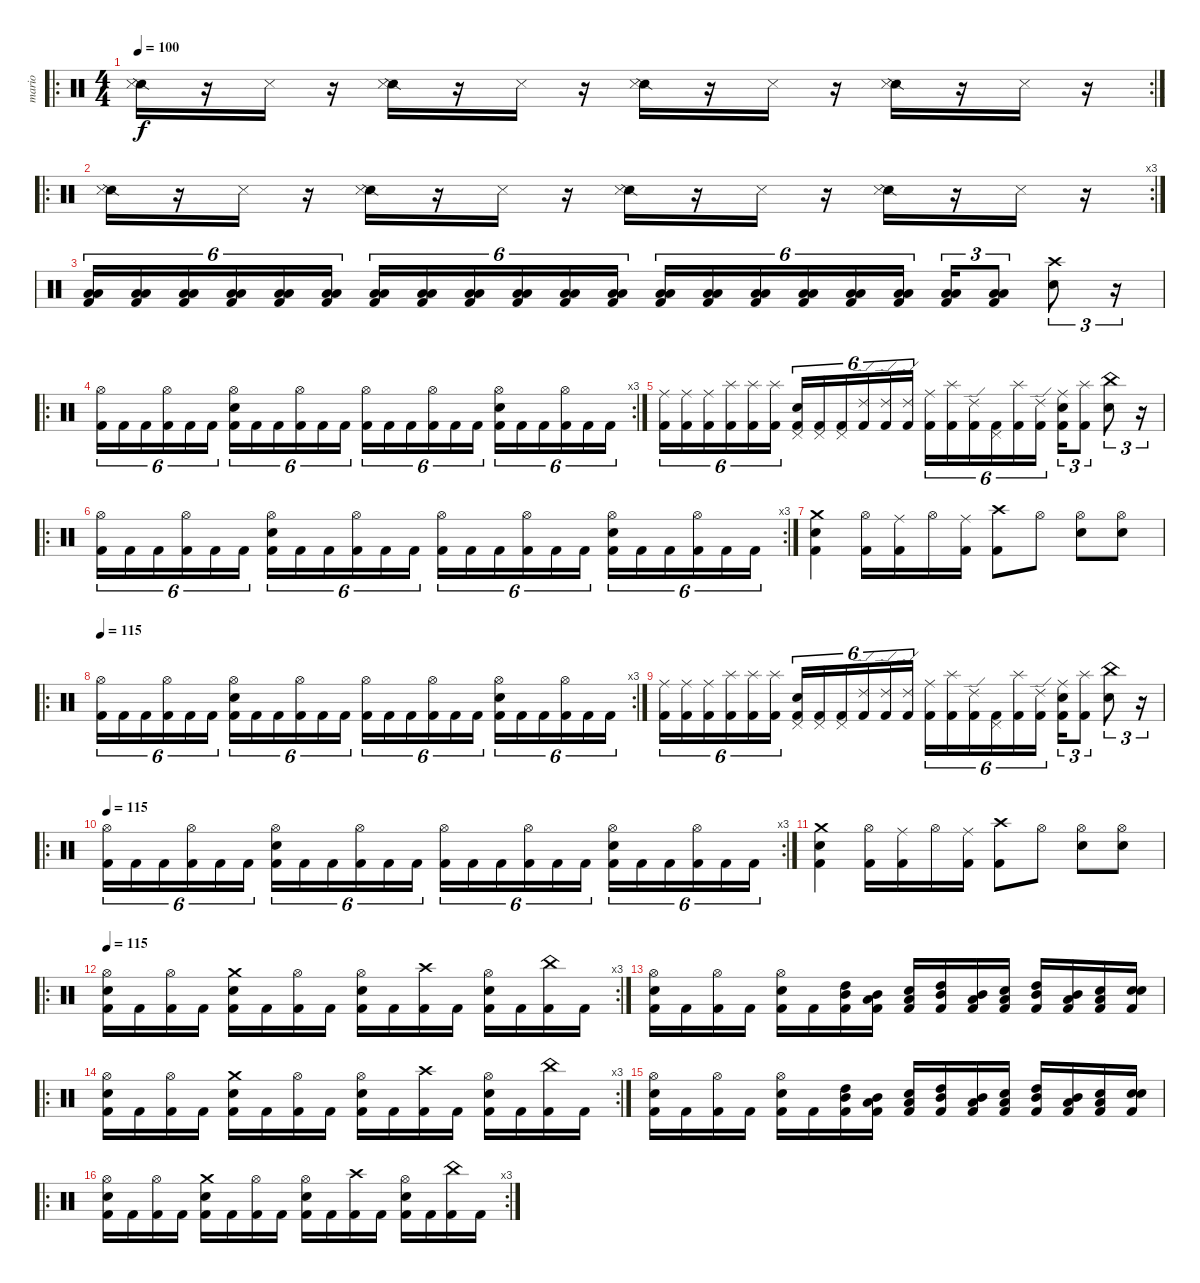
\track ("mario" "mario") {instrument percussion}
\staff {score}
\articulation defaults
\ro
\rc 2
\ts (4 4)
\tempo 100
\tempo 115
\tempo 100
\clef neutral
\ks c
("Snare (side stick) 2" "Metronome (hit)").16{dy f} r.16 "Metronome (hit)".16 r.16 ("Snare (side stick) 2" "Metronome (hit)").16 r.16 "Metronome (hit)".16 r.16 ("Snare (side stick) 2" "Metronome (hit)").16 r.16 "Metronome (hit)".16 r.16 ("Snare (side stick) 2" "Metronome (hit)").16 r.16 "Metronome (hit)".16 r.16 |
\ro
\rc 3
("Snare (side stick) 2" "Metronome (hit)").16 r.16 "Metronome (hit)".16 r.16 ("Snare (side stick) 2" "Metronome (hit)").16 r.16 "Metronome (hit)".16 r.16 ("Snare (side stick) 2" "Metronome (hit)").16 r.16 "Metronome (hit)".16 r.16 ("Snare (side stick) 2" "Metronome (hit)").16 r.16 "Metronome (hit)".16 r.16 |
("Low Tom (hit)" "Low Tom (hit)" "Kick (hit) 2").16{tu (6 4) volume 12} ("Low Tom (hit)" "Low Tom (hit)" "Kick (hit) 2").16{tu (6 4)} ("Low Tom (hit)" "Low Tom (hit)" "Kick (hit) 2").16{tu (6 4)} ("Low Tom (hit)" "Low Tom (hit)" "Kick (hit) 2").16{tu (6 4)} ("Low Tom (hit)" "Low Tom (hit)" "Kick (hit) 2").16{tu (6 4)} ("Low Tom (hit)" "Low Tom (hit)" "Kick (hit) 2").16{tu (6 4)} ("Low Tom (hit)" "Low Tom (hit)" "Kick (hit) 2").16{tu (6 4)} ("Low Tom (hit)" "Low Tom (hit)" "Kick (hit) 2").16{tu (6 4)} ("Low Tom (hit)" "Low Tom (hit)" "Kick (hit) 2").16{tu (6 4)} ("Low Tom (hit)" "Low Tom (hit)" "Kick (hit) 2").16{tu (6 4)} ("Low Tom (hit)" "Low Tom (hit)" "Kick (hit) 2").16{tu (6 4)} ("Low Tom (hit)" "Low Tom (hit)" "Kick (hit) 2").16{tu (6 4)} ("Low Tom (hit)" "Low Tom (hit)" "Kick (hit) 2").16{tu (6 4)} ("Low Tom (hit)" "Low Tom (hit)" "Kick (hit) 2").16{tu (6 4)} ("Low Tom (hit)" "Low Tom (hit)" "Kick (hit) 2").16{tu (6 4)} ("Low Tom (hit)" "Low Tom (hit)" "Kick (hit) 2").16{tu (6 4)} ("Low Tom (hit)" "Low Tom (hit)" "Kick (hit) 2").16{tu (6 4)} ("Low Tom (hit)" "Low Tom (hit)" "Kick (hit) 2").16{tu (6 4)} ("Low Tom (hit)" "Low Tom (hit)" "Kick (hit) 2").16{tu (3 2)} ("Low Tom (hit)" "Low Tom (hit)" "Kick (hit) 2").8{tu (3 2)} ("Crash high (hit)" "Electric Snare (hit)").8{tu (3 2)} r.16{tu (3 2)} |
\ro
\rc 3
("Hi-Hat (open)" "Kick (hit) 2").16{tu (6 4) volume 12} "Kick (hit) 2".16{tu (6 4)} "Kick (hit) 2".16{tu (6 4)} ("Hi-Hat (open)" "Kick (hit) 2").16{tu (6 4)} "Kick (hit) 2".16{tu (6 4)} "Kick (hit) 2".16{tu (6 4)} ("Hi-Hat (open)" "Electric Snare (hit)" "Kick (hit) 2").16{tu (6 4)} "Kick (hit) 2".16{tu (6 4)} "Kick (hit) 2".16{tu (6 4)} ("Hi-Hat (open)" "Kick (hit) 2").16{tu (6 4)} "Kick (hit) 2".16{tu (6 4)} "Kick (hit) 2".16{tu (6 4)} ("Hi-Hat (open)" "Kick (hit) 2").16{tu (6 4)} "Kick (hit) 2".16{tu (6 4)} "Kick (hit) 2".16{tu (6 4)} ("Hi-Hat (open)" "Kick (hit) 2").16{tu (6 4)} "Kick (hit) 2".16{tu (6 4)} "Kick (hit) 2".16{tu (6 4)} ("Hi-Hat (open)" "Electric Snare (hit)" "Kick (hit) 2").16{tu (6 4)} "Kick (hit) 2".16{tu (6 4)} "Kick (hit) 2".16{tu (6 4)} ("Hi-Hat (open)" "Kick (hit) 2").16{tu (6 4)} "Kick (hit) 2".16{tu (6 4)} "Kick (hit) 2".16{tu (6 4)} |
("Ride (middle)" "Kick (hit) 2").16{tu (6 4) volume 12} ("Ride (middle)" "Kick (hit) 2").16{tu (6 4)} ("Ride (middle)" "Kick (hit) 2").16{tu (6 4)} ("Splash (hit)" "Kick (hit) 2").16{tu (6 4)} ("Splash (hit)" "Kick (hit) 2").16{tu (6 4)} ("Splash (hit)" "Kick (hit) 2").16{tu (6 4)} ("Pedal Hi-Hat (hit)" "Electric Snare (hit)" "Kick (hit) 2").16{tu (6 4)} ("Pedal Hi-Hat (hit)" "Kick (hit) 2").16{tu (6 4)} ("Pedal Hi-Hat (hit)" "Kick (hit) 2").16{tu (6 4)} ("Ride (edge) 2" "Kick (hit) 2").16{tu (6 4)} ("Ride (edge) 2" "Kick (hit) 2").16{tu (6 4)} ("Ride (edge) 2" "Kick (hit) 2").16{tu (6 4)} ("Ride (middle)" "Kick (hit) 2").16{tu (6 4)} ("Splash (hit)" "Kick (hit) 2").16{tu (6 4)} ("Ride (edge) 2" "Kick (hit) 2").16{tu (6 4)} ("Pedal Hi-Hat (hit)" "Kick (hit) 2").16{tu (6 4)} ("Splash (hit)" "Kick (hit) 2").16{tu (6 4)} ("Ride (edge) 2" "Kick (hit) 2").16{tu (6 4)} ("Ride (middle)" "Electric Snare (hit)" "Kick (hit) 2").16{tu (3 2)} ("Splash (hit)" "Kick (hit) 2").8{tu (3 2)} ("China (hit)" "Electric Snare (hit)").8{tu (3 2)} r.16{tu (3 2)} |
\ro
\rc 3
("Hi-Hat (open)" "Kick (hit) 2").16{tu (6 4) volume 12} "Kick (hit) 2".16{tu (6 4)} "Kick (hit) 2".16{tu (6 4)} ("Hi-Hat (open)" "Kick (hit) 2").16{tu (6 4)} "Kick (hit) 2".16{tu (6 4)} "Kick (hit) 2".16{tu (6 4)} ("Hi-Hat (open)" "Electric Snare (hit)" "Kick (hit) 2").16{tu (6 4)} "Kick (hit) 2".16{tu (6 4)} "Kick (hit) 2".16{tu (6 4)} ("Hi-Hat (open)" "Kick (hit) 2").16{tu (6 4)} "Kick (hit) 2".16{tu (6 4)} "Kick (hit) 2".16{tu (6 4)} ("Hi-Hat (open)" "Kick (hit) 2").16{tu (6 4)} "Kick (hit) 2".16{tu (6 4)} "Kick (hit) 2".16{tu (6 4)} ("Hi-Hat (open)" "Kick (hit) 2").16{tu (6 4)} "Kick (hit) 2".16{tu (6 4)} "Kick (hit) 2".16{tu (6 4)} ("Hi-Hat (open)" "Electric Snare (hit)" "Kick (hit) 2").16{tu (6 4)} "Kick (hit) 2".16{tu (6 4)} "Kick (hit) 2".16{tu (6 4)} ("Hi-Hat (open)" "Kick (hit) 2").16{tu (6 4)} "Kick (hit) 2".16{tu (6 4)} "Kick (hit) 2".16{tu (6 4)} |
("Crash medium (hit)" "Electric Snare (hit)" "Kick (hit) 2").4 ("Hi-Hat (open)" "Kick (hit) 2").16 ("Ride (middle)" "Kick (hit) 2").16 "Hi-Hat (open)".16 ("Ride (middle)" "Kick (hit) 2").16 ("Crash high (hit)" "Kick (hit) 2").8 "Hi-Hat (open)".8 ("Hi-Hat (open)" "Electric Snare (hit)").8 ("Hi-Hat (open)" "Electric Snare (hit)").8 |
\ro
\rc 3
\tempo 115
("Hi-Hat (open)" "Kick (hit) 2").16{tu (6 4) volume 12} "Kick (hit) 2".16{tu (6 4)} "Kick (hit) 2".16{tu (6 4)} ("Hi-Hat (open)" "Kick (hit) 2").16{tu (6 4)} "Kick (hit) 2".16{tu (6 4)} "Kick (hit) 2".16{tu (6 4)} ("Hi-Hat (open)" "Electric Snare (hit)" "Kick (hit) 2").16{tu (6 4)} "Kick (hit) 2".16{tu (6 4)} "Kick (hit) 2".16{tu (6 4)} ("Hi-Hat (open)" "Kick (hit) 2").16{tu (6 4)} "Kick (hit) 2".16{tu (6 4)} "Kick (hit) 2".16{tu (6 4)} ("Hi-Hat (open)" "Kick (hit) 2").16{tu (6 4)} "Kick (hit) 2".16{tu (6 4)} "Kick (hit) 2".16{tu (6 4)} ("Hi-Hat (open)" "Kick (hit) 2").16{tu (6 4)} "Kick (hit) 2".16{tu (6 4)} "Kick (hit) 2".16{tu (6 4)} ("Hi-Hat (open)" "Electric Snare (hit)" "Kick (hit) 2").16{tu (6 4)} "Kick (hit) 2".16{tu (6 4)} "Kick (hit) 2".16{tu (6 4)} ("Hi-Hat (open)" "Kick (hit) 2").16{tu (6 4)} "Kick (hit) 2".16{tu (6 4)} "Kick (hit) 2".16{tu (6 4)} |
("Ride (middle)" "Kick (hit) 2").16{tu (6 4) volume 12} ("Ride (middle)" "Kick (hit) 2").16{tu (6 4)} ("Ride (middle)" "Kick (hit) 2").16{tu (6 4)} ("Splash (hit)" "Kick (hit) 2").16{tu (6 4)} ("Splash (hit)" "Kick (hit) 2").16{tu (6 4)} ("Splash (hit)" "Kick (hit) 2").16{tu (6 4)} ("Pedal Hi-Hat (hit)" "Electric Snare (hit)" "Kick (hit) 2").16{tu (6 4)} ("Pedal Hi-Hat (hit)" "Kick (hit) 2").16{tu (6 4)} ("Pedal Hi-Hat (hit)" "Kick (hit) 2").16{tu (6 4)} ("Ride (edge) 2" "Kick (hit) 2").16{tu (6 4)} ("Ride (edge) 2" "Kick (hit) 2").16{tu (6 4)} ("Ride (edge) 2" "Kick (hit) 2").16{tu (6 4)} ("Ride (middle)" "Kick (hit) 2").16{tu (6 4)} ("Splash (hit)" "Kick (hit) 2").16{tu (6 4)} ("Ride (edge) 2" "Kick (hit) 2").16{tu (6 4)} ("Pedal Hi-Hat (hit)" "Kick (hit) 2").16{tu (6 4)} ("Splash (hit)" "Kick (hit) 2").16{tu (6 4)} ("Ride (edge) 2" "Kick (hit) 2").16{tu (6 4)} ("Ride (middle)" "Electric Snare (hit)" "Kick (hit) 2").16{tu (3 2)} ("Splash (hit)" "Kick (hit) 2").8{tu (3 2)} ("China (hit)" "Electric Snare (hit)").8{tu (3 2)} r.16{tu (3 2)} |
\ro
\rc 3
\tempo 115
("Hi-Hat (open)" "Kick (hit) 2").16{tu (6 4) volume 12} "Kick (hit) 2".16{tu (6 4)} "Kick (hit) 2".16{tu (6 4)} ("Hi-Hat (open)" "Kick (hit) 2").16{tu (6 4)} "Kick (hit) 2".16{tu (6 4)} "Kick (hit) 2".16{tu (6 4)} ("Hi-Hat (open)" "Electric Snare (hit)" "Kick (hit) 2").16{tu (6 4)} "Kick (hit) 2".16{tu (6 4)} "Kick (hit) 2".16{tu (6 4)} ("Hi-Hat (open)" "Kick (hit) 2").16{tu (6 4)} "Kick (hit) 2".16{tu (6 4)} "Kick (hit) 2".16{tu (6 4)} ("Hi-Hat (open)" "Kick (hit) 2").16{tu (6 4)} "Kick (hit) 2".16{tu (6 4)} "Kick (hit) 2".16{tu (6 4)} ("Hi-Hat (open)" "Kick (hit) 2").16{tu (6 4)} "Kick (hit) 2".16{tu (6 4)} "Kick (hit) 2".16{tu (6 4)} ("Hi-Hat (open)" "Electric Snare (hit)" "Kick (hit) 2").16{tu (6 4)} "Kick (hit) 2".16{tu (6 4)} "Kick (hit) 2".16{tu (6 4)} ("Hi-Hat (open)" "Kick (hit) 2").16{tu (6 4)} "Kick (hit) 2".16{tu (6 4)} "Kick (hit) 2".16{tu (6 4)} |
("Crash medium (hit)" "Electric Snare (hit)" "Kick (hit) 2").4 ("Hi-Hat (open)" "Kick (hit) 2").16 ("Ride (middle)" "Kick (hit) 2").16 "Hi-Hat (open)".16 ("Ride (middle)" "Kick (hit) 2").16 ("Crash high (hit)" "Kick (hit) 2").8 "Hi-Hat (open)".8 ("Hi-Hat (open)" "Electric Snare (hit)").8 ("Hi-Hat (open)" "Electric Snare (hit)").8 |
\ro
\rc 3
\tempo 115
("Hi-Hat (open)" "Electric Snare (hit)" "Kick (hit) 2").16 "Kick (hit) 2".16 ("Hi-Hat (open)" "Kick (hit) 2").16 "Kick (hit) 2".16 ("Crash medium (hit)" "Electric Snare (hit)" "Kick (hit) 2").16 "Kick (hit) 2".16 ("Hi-Hat (open)" "Kick (hit) 2").16 "Kick (hit) 2".16 ("Hi-Hat (open)" "Electric Snare (hit)" "Kick (hit) 2").16 "Kick (hit) 2".16 ("Crash high (hit)" "Kick (hit) 2").16 "Kick (hit) 2".16 ("Hi-Hat (open)" "Electric Snare (hit)" "Kick (hit) 2").16 "Kick (hit) 2".16 ("China (hit)" "Kick (hit) 2").16 "Kick (hit) 2".16 |
("Hi-Hat (open)" "Electric Snare (hit)" "Kick (hit) 2").16 "Kick (hit) 2".16 ("Hi-Hat (open)" "Kick (hit) 2").16 "Kick (hit) 2".16 ("Hi-Hat (open)" "Electric Snare (hit)" "Kick (hit) 2").16 "Kick (hit) 2".16 ("Mid Tom (hit)" "High Tom (hit)" "Kick (hit) 2").16 ("Low Tom (hit)" "Mid Tom (hit)" "Kick (hit) 2").16 ("Snare (hit) 2" "Low Tom (hit)" "Kick (hit) 2").16 ("Mid Tom (hit)" "High Tom (hit)" "Kick (hit) 2").16 ("Low Tom (hit)" "Mid Tom (hit)" "Kick (hit) 2").16 ("Snare (hit) 2" "Low Tom (hit)" "Kick (hit) 2").16 ("Mid Tom (hit)" "High Tom (hit)" "Kick (hit) 2").16 ("Low Tom (hit)" "Mid Tom (hit)" "Kick (hit) 2").16 ("Snare (hit) 2" "Low Tom (hit)" "Kick (hit) 2").16 ("Electric Snare (hit)" "Snare (hit) 2" "Kick (hit) 2").16 |
\ro
\rc 3
("Hi-Hat (open)" "Electric Snare (hit)" "Kick (hit) 2").16 "Kick (hit) 2".16 ("Hi-Hat (open)" "Kick (hit) 2").16 "Kick (hit) 2".16 ("Crash medium (hit)" "Electric Snare (hit)" "Kick (hit) 2").16 "Kick (hit) 2".16 ("Hi-Hat (open)" "Kick (hit) 2").16 "Kick (hit) 2".16 ("Hi-Hat (open)" "Electric Snare (hit)" "Kick (hit) 2").16 "Kick (hit) 2".16 ("Crash high (hit)" "Kick (hit) 2").16 "Kick (hit) 2".16 ("Hi-Hat (open)" "Electric Snare (hit)" "Kick (hit) 2").16 "Kick (hit) 2".16 ("China (hit)" "Kick (hit) 2").16 "Kick (hit) 2".16 |
("Hi-Hat (open)" "Electric Snare (hit)" "Kick (hit) 2").16 "Kick (hit) 2".16 ("Hi-Hat (open)" "Kick (hit) 2").16 "Kick (hit) 2".16 ("Hi-Hat (open)" "Electric Snare (hit)" "Kick (hit) 2").16 "Kick (hit) 2".16 ("Mid Tom (hit)" "High Tom (hit)" "Kick (hit) 2").16 ("Low Tom (hit)" "Mid Tom (hit)" "Kick (hit) 2").16 ("Snare (hit) 2" "Low Tom (hit)" "Kick (hit) 2").16 ("Mid Tom (hit)" "High Tom (hit)" "Kick (hit) 2").16 ("Low Tom (hit)" "Mid Tom (hit)" "Kick (hit) 2").16 ("Snare (hit) 2" "Low Tom (hit)" "Kick (hit) 2").16 ("Mid Tom (hit)" "High Tom (hit)" "Kick (hit) 2").16 ("Low Tom (hit)" "Mid Tom (hit)" "Kick (hit) 2").16 ("Snare (hit) 2" "Low Tom (hit)" "Kick (hit) 2").16 ("Electric Snare (hit)" "Snare (hit) 2" "Kick (hit) 2").16 |
\ro
\rc 3
("Hi-Hat (open)" "Electric Snare (hit)" "Kick (hit) 2").16 "Kick (hit) 2".16 ("Hi-Hat (open)" "Kick (hit) 2").16 "Kick (hit) 2".16 ("Crash medium (hit)" "Electric Snare (hit)" "Kick (hit) 2").16 "Kick (hit) 2".16 ("Hi-Hat (open)" "Kick (hit) 2").16 "Kick (hit) 2".16 ("Hi-Hat (open)" "Electric Snare (hit)" "Kick (hit) 2").16 "Kick (hit) 2".16 ("Crash high (hit)" "Kick (hit) 2").16 "Kick (hit) 2".16 ("Hi-Hat (open)" "Electric Snare (hit)" "Kick (hit) 2").16 "Kick (hit) 2".16 ("China (hit)" "Kick (hit) 2").16 "Kick (hit) 2".16
